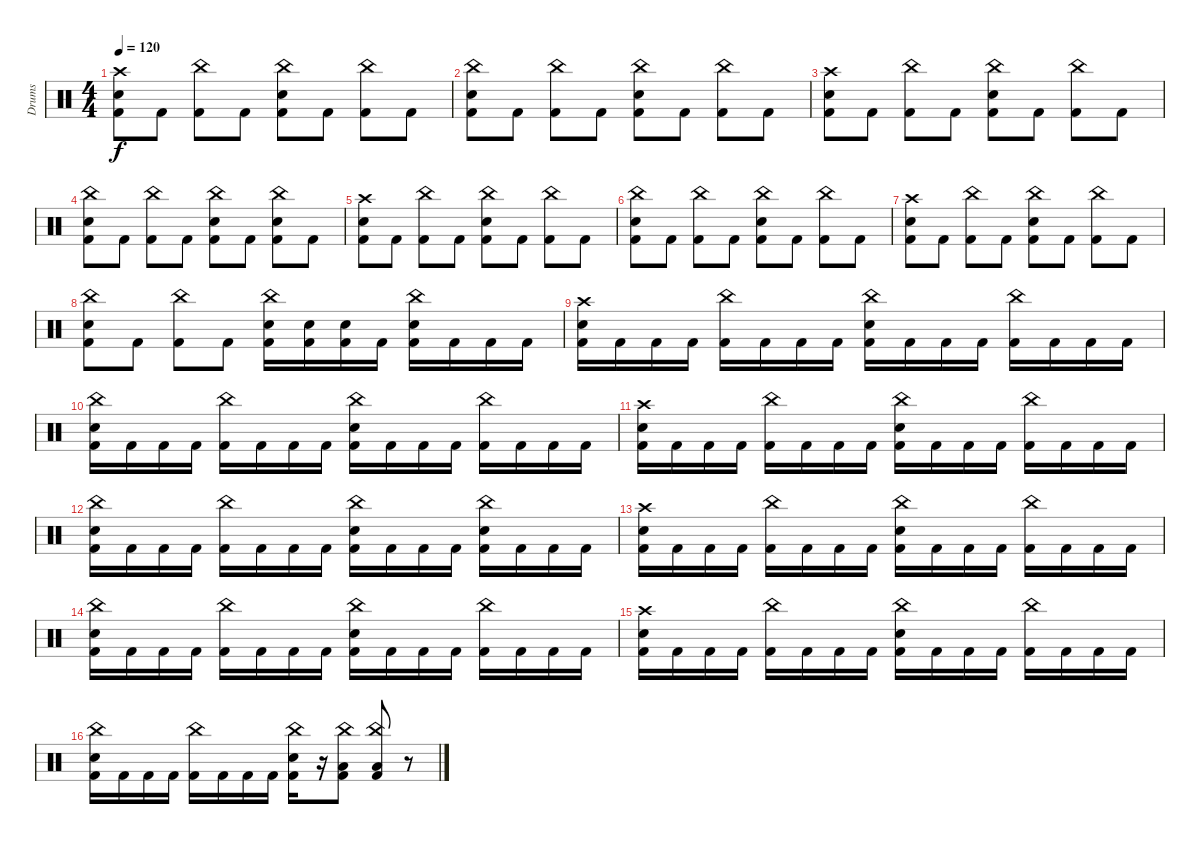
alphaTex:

\track ("Drums" "Drums") {instrument percussion}
\staff {score}
\articulation defaults
\ts (4 4)
\tempo 120
\clef neutral
\ks c
("Crash high (hit)" "Snare (hit) 2" "Kick (hit) 2").8{dy f} "Kick (hit) 2".8 ("China (hit)" "Kick (hit) 2").8 "Kick (hit) 2".8 ("China (hit)" "Snare (hit) 2" "Kick (hit) 2").8 "Kick (hit) 2".8 ("China (hit)" "Kick (hit) 2").8 "Kick (hit) 2".8 |
("China (hit)" "Snare (hit) 2" "Kick (hit) 2").8 "Kick (hit) 2".8 ("China (hit)" "Kick (hit) 2").8 "Kick (hit) 2".8 ("China (hit)" "Snare (hit) 2" "Kick (hit) 2").8 "Kick (hit) 2".8 ("China (hit)" "Kick (hit) 2").8 "Kick (hit) 2".8 |
("Crash high (hit)" "Snare (hit) 2" "Kick (hit) 2").8 "Kick (hit) 2".8 ("China (hit)" "Kick (hit) 2").8 "Kick (hit) 2".8 ("China (hit)" "Snare (hit) 2" "Kick (hit) 2").8 "Kick (hit) 2".8 ("China (hit)" "Kick (hit) 2").8 "Kick (hit) 2".8 |
("China (hit)" "Snare (hit) 2" "Kick (hit) 2").8 "Kick (hit) 2".8 ("China (hit)" "Kick (hit) 2").8 "Kick (hit) 2".8 ("China (hit)" "Snare (hit) 2" "Kick (hit) 2").8 "Kick (hit) 2".8 ("China (hit)" "Snare (hit) 2" "Kick (hit) 2").8 "Kick (hit) 2".8 |
("Crash high (hit)" "Snare (hit) 2" "Kick (hit) 2").8 "Kick (hit) 2".8 ("China (hit)" "Kick (hit) 2").8 "Kick (hit) 2".8 ("China (hit)" "Snare (hit) 2" "Kick (hit) 2").8 "Kick (hit) 2".8 ("China (hit)" "Kick (hit) 2").8 "Kick (hit) 2".8 |
("China (hit)" "Snare (hit) 2" "Kick (hit) 2").8 "Kick (hit) 2".8 ("China (hit)" "Kick (hit) 2").8 "Kick (hit) 2".8 ("China (hit)" "Snare (hit) 2" "Kick (hit) 2").8 "Kick (hit) 2".8 ("China (hit)" "Kick (hit) 2").8 "Kick (hit) 2".8 |
("Crash high (hit)" "Snare (hit) 2" "Kick (hit) 2").8 "Kick (hit) 2".8 ("China (hit)" "Kick (hit) 2").8 "Kick (hit) 2".8 ("China (hit)" "Snare (hit) 2" "Kick (hit) 2").8 "Kick (hit) 2".8 ("China (hit)" "Kick (hit) 2").8 "Kick (hit) 2".8 |
("China (hit)" "Snare (hit) 2" "Kick (hit) 2").8 "Kick (hit) 2".8 ("China (hit)" "Kick (hit) 2").8 "Kick (hit) 2".8 ("China (hit)" "Snare (hit) 2" "Kick (hit) 2").16 ("Snare (hit) 2" "Kick (hit) 2").16 ("Snare (hit) 2" "Kick (hit) 2").16 "Kick (hit) 2".16 ("China (hit)" "Snare (hit) 2" "Kick (hit) 2").16 "Kick (hit) 2".16 "Kick (hit) 2".16 "Kick (hit) 2".16 |
("Crash high (hit)" "Snare (hit) 2" "Kick (hit) 2").16 "Kick (hit) 2".16 "Kick (hit) 2".16 "Kick (hit) 2".16 ("China (hit)" "Kick (hit) 2").16 "Kick (hit) 2".16 "Kick (hit) 2".16 "Kick (hit) 2".16 ("China (hit)" "Snare (hit) 2" "Kick (hit) 2").16 "Kick (hit) 2".16 "Kick (hit) 2".16 "Kick (hit) 2".16 ("China (hit)" "Kick (hit) 2").16 "Kick (hit) 2".16 "Kick (hit) 2".16 "Kick (hit) 2".16 |
("China (hit)" "Snare (hit) 2" "Kick (hit) 2").16 "Kick (hit) 2".16 "Kick (hit) 2".16 "Kick (hit) 2".16 ("China (hit)" "Kick (hit) 2").16 "Kick (hit) 2".16 "Kick (hit) 2".16 "Kick (hit) 2".16 ("China (hit)" "Snare (hit) 2" "Kick (hit) 2").16 "Kick (hit) 2".16 "Kick (hit) 2".16 "Kick (hit) 2".16 ("China (hit)" "Kick (hit) 2").16 "Kick (hit) 2".16 "Kick (hit) 2".16 "Kick (hit) 2".16 |
("Crash high (hit)" "Snare (hit) 2" "Kick (hit) 2").16 "Kick (hit) 2".16 "Kick (hit) 2".16 "Kick (hit) 2".16 ("China (hit)" "Kick (hit) 2").16 "Kick (hit) 2".16 "Kick (hit) 2".16 "Kick (hit) 2".16 ("China (hit)" "Snare (hit) 2" "Kick (hit) 2").16 "Kick (hit) 2".16 "Kick (hit) 2".16 "Kick (hit) 2".16 ("China (hit)" "Kick (hit) 2").16 "Kick (hit) 2".16 "Kick (hit) 2".16 "Kick (hit) 2".16 |
("China (hit)" "Snare (hit) 2" "Kick (hit) 2").16 "Kick (hit) 2".16 "Kick (hit) 2".16 "Kick (hit) 2".16 ("China (hit)" "Kick (hit) 2").16 "Kick (hit) 2".16 "Kick (hit) 2".16 "Kick (hit) 2".16 ("China (hit)" "Snare (hit) 2" "Kick (hit) 2").16 "Kick (hit) 2".16 "Kick (hit) 2".16 "Kick (hit) 2".16 ("China (hit)" "Snare (hit) 2" "Kick (hit) 2").16 "Kick (hit) 2".16 "Kick (hit) 2".16 "Kick (hit) 2".16 |
("Crash high (hit)" "Snare (hit) 2" "Kick (hit) 2").16 "Kick (hit) 2".16 "Kick (hit) 2".16 "Kick (hit) 2".16 ("China (hit)" "Kick (hit) 2").16 "Kick (hit) 2".16 "Kick (hit) 2".16 "Kick (hit) 2".16 ("China (hit)" "Snare (hit) 2" "Kick (hit) 2").16 "Kick (hit) 2".16 "Kick (hit) 2".16 "Kick (hit) 2".16 ("China (hit)" "Kick (hit) 2").16 "Kick (hit) 2".16 "Kick (hit) 2".16 "Kick (hit) 2".16 |
("China (hit)" "Snare (hit) 2" "Kick (hit) 2").16 "Kick (hit) 2".16 "Kick (hit) 2".16 "Kick (hit) 2".16 ("China (hit)" "Kick (hit) 2").16 "Kick (hit) 2".16 "Kick (hit) 2".16 "Kick (hit) 2".16 ("China (hit)" "Snare (hit) 2" "Kick (hit) 2").16 "Kick (hit) 2".16 "Kick (hit) 2".16 "Kick (hit) 2".16 ("China (hit)" "Kick (hit) 2").16 "Kick (hit) 2".16 "Kick (hit) 2".16 "Kick (hit) 2".16 |
("Crash high (hit)" "Snare (hit) 2" "Kick (hit) 2").16 "Kick (hit) 2".16 "Kick (hit) 2".16 "Kick (hit) 2".16 ("China (hit)" "Kick (hit) 2").16 "Kick (hit) 2".16 "Kick (hit) 2".16 "Kick (hit) 2".16 ("China (hit)" "Snare (hit) 2" "Kick (hit) 2").16 "Kick (hit) 2".16 "Kick (hit) 2".16 "Kick (hit) 2".16 ("China (hit)" "Kick (hit) 2").16 "Kick (hit) 2".16 "Kick (hit) 2".16 "Kick (hit) 2".16 |
("China (hit)" "Snare (hit) 2" "Kick (hit) 2").16 "Kick (hit) 2".16 "Kick (hit) 2".16 "Kick (hit) 2".16 ("China (hit)" "Kick (hit) 2").16 "Kick (hit) 2".16 "Kick (hit) 2".16 "Kick (hit) 2".16 ("China (hit)" "Snare (hit) 2" "Kick (hit) 2").16 r.16 ("China (hit)" "Low Tom (hit)" "Kick (hit) 2").8 ("China (hit)" "Low Tom (hit)" "Kick (hit) 2").8 r.8
